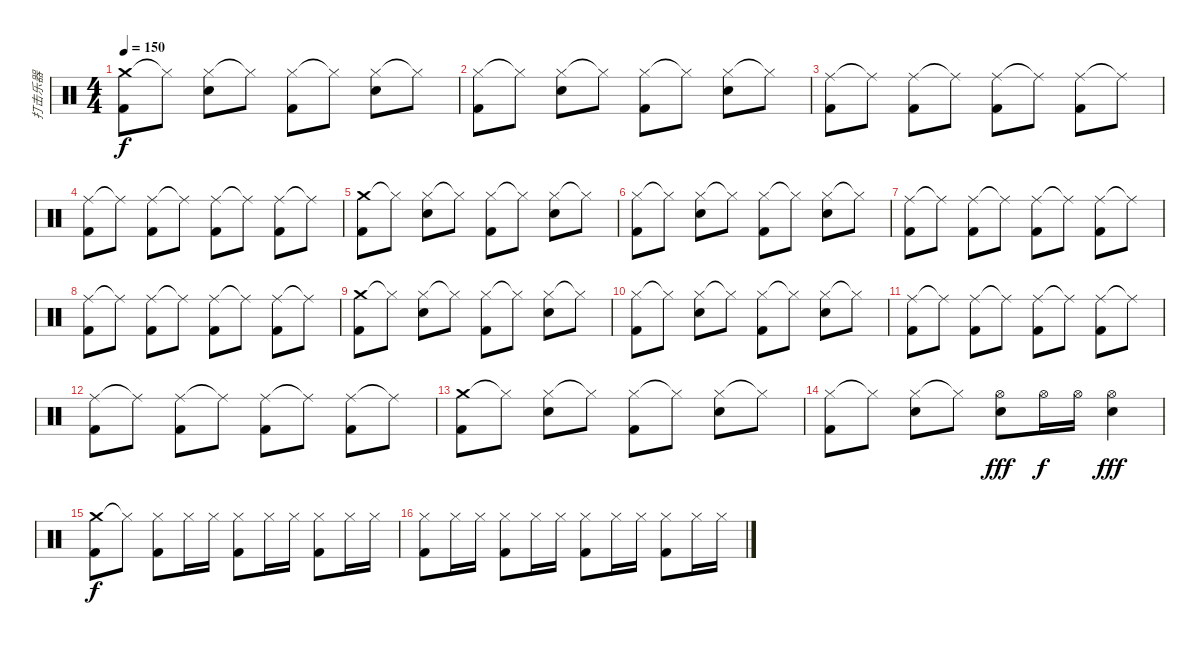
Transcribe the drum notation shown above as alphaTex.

\track ("打击乐器" "打击乐器") {instrument percussion}
\staff {score}
\articulation defaults
\ts (4 4)
\tempo 150
\clef neutral
\ks c
("Crash medium (hit)" "Kick (hit) 2").8{dy f} "Hi-Hat (closed)"{t}.8 ("Hi-Hat (closed)" "Snare (hit) 2").8 "Hi-Hat (closed)"{t}.8 ("Hi-Hat (closed)" "Kick (hit) 2").8 "Hi-Hat (closed)"{t}.8 ("Hi-Hat (closed)" "Snare (hit) 2").8 "Hi-Hat (closed)"{t}.8 |
("Hi-Hat (closed)" "Kick (hit) 2").8 "Hi-Hat (closed)"{t}.8 ("Hi-Hat (closed)" "Snare (hit) 2").8 "Hi-Hat (closed)"{t}.8 ("Hi-Hat (closed)" "Kick (hit) 2").8 "Hi-Hat (closed)"{t}.8 ("Hi-Hat (closed)" "Snare (hit) 2").8 "Hi-Hat (closed)"{t}.8 |
("Ride (middle)" "Kick (hit) 2").8 "Ride (middle)"{t}.8 ("Ride (middle)" "Kick (hit) 2").8 "Ride (middle)"{t}.8 ("Ride (middle)" "Kick (hit) 2").8 "Ride (middle)"{t}.8 ("Ride (middle)" "Kick (hit) 2").8 "Ride (middle)"{t}.8 |
("Ride (middle)" "Kick (hit) 2").8 "Ride (middle)"{t}.8 ("Ride (middle)" "Kick (hit) 2").8 "Ride (middle)"{t}.8 ("Ride (middle)" "Kick (hit) 2").8 "Ride (middle)"{t}.8 ("Ride (middle)" "Kick (hit) 2").8 "Ride (middle)"{t}.8 |
("Crash medium (hit)" "Kick (hit) 2").8 "Hi-Hat (closed)"{t}.8 ("Hi-Hat (closed)" "Snare (hit) 2").8 "Hi-Hat (closed)"{t}.8 ("Hi-Hat (closed)" "Kick (hit) 2").8 "Hi-Hat (closed)"{t}.8 ("Hi-Hat (closed)" "Snare (hit) 2").8 "Hi-Hat (closed)"{t}.8 |
("Hi-Hat (closed)" "Kick (hit) 2").8 "Hi-Hat (closed)"{t}.8 ("Hi-Hat (closed)" "Snare (hit) 2").8 "Hi-Hat (closed)"{t}.8 ("Hi-Hat (closed)" "Kick (hit) 2").8 "Hi-Hat (closed)"{t}.8 ("Hi-Hat (closed)" "Snare (hit) 2").8 "Hi-Hat (closed)"{t}.8 |
("Ride (middle)" "Kick (hit) 2").8 "Ride (middle)"{t}.8 ("Ride (middle)" "Kick (hit) 2").8 "Ride (middle)"{t}.8 ("Ride (middle)" "Kick (hit) 2").8 "Ride (middle)"{t}.8 ("Ride (middle)" "Kick (hit) 2").8 "Ride (middle)"{t}.8 |
("Ride (middle)" "Kick (hit) 2").8 "Ride (middle)"{t}.8 ("Ride (middle)" "Kick (hit) 2").8 "Ride (middle)"{t}.8 ("Ride (middle)" "Kick (hit) 2").8 "Ride (middle)"{t}.8 ("Ride (middle)" "Kick (hit) 2").8 "Ride (middle)"{t}.8 |
("Crash medium (hit)" "Kick (hit) 2").8 "Hi-Hat (closed)"{t}.8 ("Hi-Hat (closed)" "Snare (hit) 2").8 "Hi-Hat (closed)"{t}.8 ("Hi-Hat (closed)" "Kick (hit) 2").8 "Hi-Hat (closed)"{t}.8 ("Hi-Hat (closed)" "Snare (hit) 2").8 "Hi-Hat (closed)"{t}.8 |
("Hi-Hat (closed)" "Kick (hit) 2").8 "Hi-Hat (closed)"{t}.8 ("Hi-Hat (closed)" "Snare (hit) 2").8 "Hi-Hat (closed)"{t}.8 ("Hi-Hat (closed)" "Kick (hit) 2").8 "Hi-Hat (closed)"{t}.8 ("Hi-Hat (closed)" "Snare (hit) 2").8 "Hi-Hat (closed)"{t}.8 |
("Ride (middle)" "Kick (hit) 2").8 "Ride (middle)"{t}.8 ("Ride (middle)" "Kick (hit) 2").8 "Ride (middle)"{t}.8 ("Ride (middle)" "Kick (hit) 2").8 "Ride (middle)"{t}.8 ("Ride (middle)" "Kick (hit) 2").8 "Ride (middle)"{t}.8 |
("Ride (middle)" "Kick (hit) 2").8 "Ride (middle)"{t}.8 ("Ride (middle)" "Kick (hit) 2").8 "Ride (middle)"{t}.8 ("Ride (middle)" "Kick (hit) 2").8 "Ride (middle)"{t}.8 ("Ride (middle)" "Kick (hit) 2").8 "Ride (middle)"{t}.8 |
("Crash medium (hit)" "Kick (hit) 2").8 "Hi-Hat (closed)"{t}.8 ("Hi-Hat (closed)" "Snare (hit) 2").8 "Hi-Hat (closed)"{t}.8 ("Hi-Hat (closed)" "Kick (hit) 2").8 "Hi-Hat (closed)"{t}.8 ("Hi-Hat (closed)" "Snare (hit) 2").8 "Hi-Hat (closed)"{t}.8 |
("Hi-Hat (closed)" "Kick (hit) 2").8 "Hi-Hat (closed)"{t}.8 ("Hi-Hat (closed)" "Snare (hit) 2").8 "Hi-Hat (closed)"{t}.8 ("Hi-Hat (open)" "Snare (hit) 2").8{dy fff} "Hi-Hat (open)".16{dy f} "Hi-Hat (open)".16 ("Hi-Hat (open)" "Snare (hit) 2").4{dy fff} |
("Crash medium (hit)" "Kick (hit) 2").8{dy f} "Hi-Hat (closed)"{t}.8 ("Hi-Hat (closed)" "Kick (hit) 2").8 "Hi-Hat (closed)".16 "Hi-Hat (closed)".16 ("Hi-Hat (closed)" "Kick (hit) 2").8 "Hi-Hat (closed)".16 "Hi-Hat (closed)".16 ("Hi-Hat (closed)" "Kick (hit) 2").8 "Hi-Hat (closed)".16 "Hi-Hat (closed)".16 |
("Hi-Hat (closed)" "Kick (hit) 2").8 "Hi-Hat (closed)".16 "Hi-Hat (closed)".16 ("Hi-Hat (closed)" "Kick (hit) 2").8 "Hi-Hat (closed)".16 "Hi-Hat (closed)".16 ("Hi-Hat (closed)" "Kick (hit) 2").8 "Hi-Hat (closed)".16 "Hi-Hat (closed)".16 ("Hi-Hat (closed)" "Kick (hit) 2").8 "Hi-Hat (closed)".16 "Hi-Hat (closed)".16
